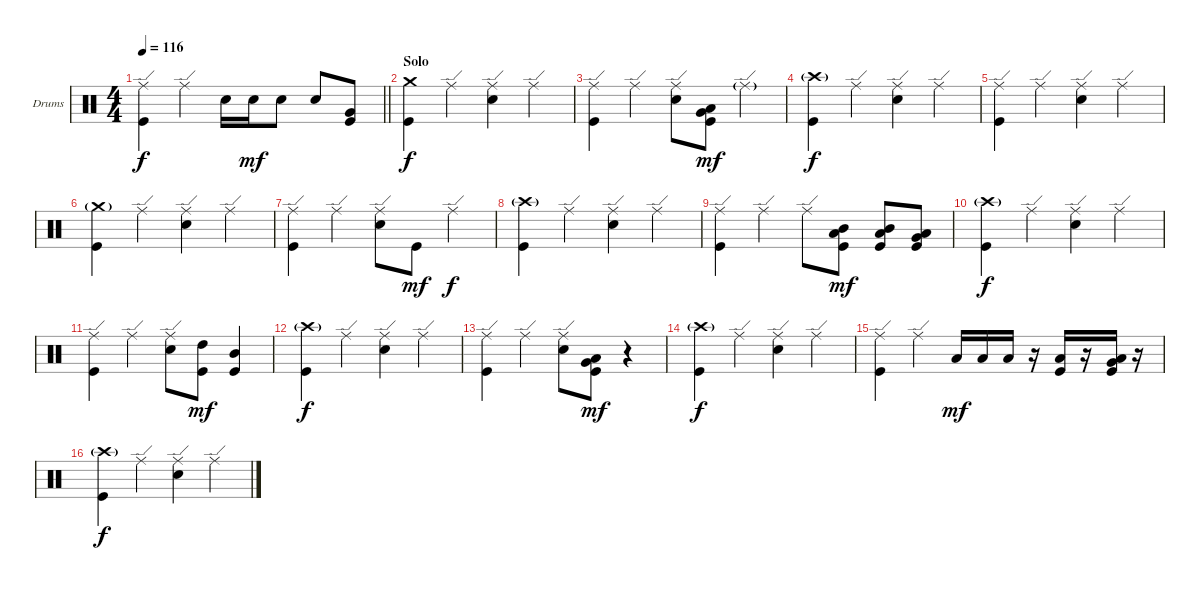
\bracketExtendMode groupsimilarinstruments
\firstSystemTrackNameOrientation horizontal
\otherSystemsTrackNameOrientation horizontal
\track ("Nick Mason" "Drums") {multiBarRest instrument percussion}
\staff {score}
\articulation defaults
\ts (4 4)
\tempo 116
\clef neutral
\barLineRight lightlight
\ks c
("Ride (edge)" "Kick (hit)").4{dy f} "Ride (edge)".4 "Snare (hit) 2".16 "Snare (hit) 2".16{dy mf} "Snare (hit) 2".8 "Snare (hit) 2".8 ("Very Low Tom (hit)" "Kick (hit)").8 |
\section ("" "Solo")
("Crash medium (hit)" "Kick (hit)").4{dy f} "Ride (edge)".4 ("Ride (edge)" "Snare (hit) 2").4 "Ride (edge)".4 |
("Ride (edge)" "Kick (hit)").4 "Ride (edge)".4 ("Ride (edge)" "Snare (hit) 2").8 ("Low Tom (hit)" "Very Low Tom (hit)" "Kick (hit)").8{dy mf} "Ride (edge)"{g}.4 |
("Crash high (hit)"{g} "Kick (hit)").4{dy f} "Ride (edge)".4 ("Ride (edge)" "Snare (hit) 2").4 "Ride (edge)".4 |
("Ride (edge)" "Kick (hit)").4 "Ride (edge)".4 ("Ride (edge)" "Snare (hit) 2").4 "Ride (edge)".4 |
("Crash medium (hit)"{g} "Kick (hit)").4 "Ride (edge)".4 ("Ride (edge)" "Snare (hit) 2").4 "Ride (edge)".4 |
("Ride (edge)" "Kick (hit)").4 "Ride (edge)".4 ("Ride (edge)" "Snare (hit) 2").8 "Kick (hit)".8{dy mf} "Ride (edge)".4{dy f} |
("Crash high (hit)"{g} "Kick (hit)").4 "Ride (edge)".4 ("Ride (edge)" "Snare (hit) 2").4 "Ride (edge)".4 |
("Ride (edge)" "Kick (hit)").4 "Ride (edge)".4 "Ride (edge)".8 ("Mid Tom (hit)" "Low Tom (hit)" "Kick (hit)").8{dy mf} ("Mid Tom (hit)" "Low Tom (hit)" "Kick (hit)").8 ("Low Tom (hit)" "Very Low Tom (hit)" "Kick (hit)").8 |
("Crash high (hit)"{g} "Kick (hit)").4{dy f} "Ride (edge)".4 ("Ride (edge)" "Snare (hit) 2").4 "Ride (edge)".4 |
("Ride (edge)" "Kick (hit)").4 "Ride (edge)".4 ("Ride (edge)" "Snare (hit) 2").8 ("High Tom (hit)" "Kick (hit)").8{dy mf} ("Mid Tom (hit)" "Kick (hit)").4 |
("Crash high (hit)"{g} "Kick (hit)").4{dy f} "Ride (edge)".4 ("Ride (edge)" "Snare (hit) 2").4 "Ride (edge)".4 |
("Ride (edge)" "Kick (hit)").4 "Ride (edge)".4 ("Ride (edge)" "Snare (hit) 2").8 ("Low Tom (hit)" "Very Low Tom (hit)" "Kick (hit)").8{dy mf} r.4 |
("Crash high (hit)"{g} "Kick (hit)").4{dy f} "Ride (edge)".4 ("Ride (edge)" "Snare (hit) 2").4 "Ride (edge)".4 |
("Ride (edge)" "Kick (hit)").4 "Ride (edge)".4 "Low Tom (hit)".16{dy mf} "Low Tom (hit)".16 "Low Tom (hit)".16 r.16 ("Low Tom (hit)" "Kick (hit)").16 r.16 ("Low Tom (hit)" "Very Low Tom (hit)" "Kick (hit)").16 r.16 |
("Crash high (hit)"{g} "Kick (hit)").4{dy f} "Ride (edge)".4 ("Ride (edge)" "Snare (hit) 2").4 "Ride (edge)".4
